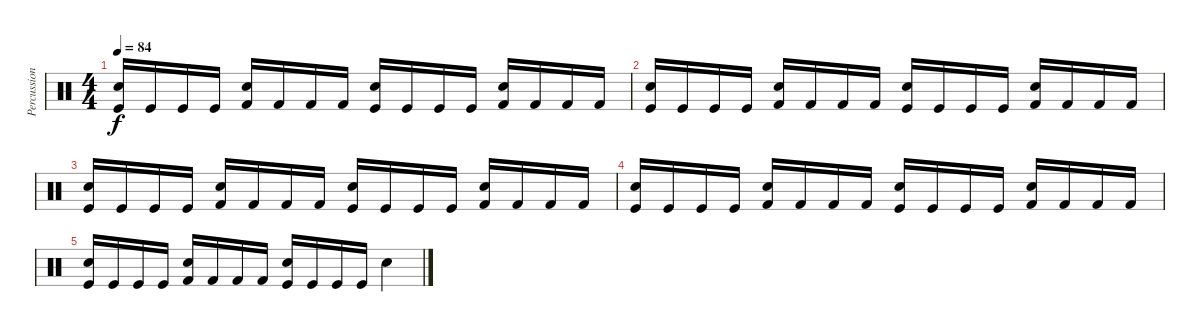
\track ("Percussion" "Percussion") {instrument percussion}
\staff {score}
\articulation defaults
\ts (4 4)
\tempo 84
\clef neutral
\ks c
("Snare (hit) 2" "Kick (hit)").16{dy f} "Kick (hit)".16 "Kick (hit)".16 "Kick (hit)".16 ("Electric Snare (hit)" "Kick (hit) 2").16 "Kick (hit) 2".16 "Kick (hit) 2".16 "Kick (hit) 2".16 ("Snare (hit) 2" "Kick (hit)").16 "Kick (hit)".16 "Kick (hit)".16 "Kick (hit)".16 ("Electric Snare (hit)" "Kick (hit) 2").16 "Kick (hit) 2".16 "Kick (hit) 2".16 "Kick (hit) 2".16 |
("Snare (hit) 2" "Kick (hit)").16 "Kick (hit)".16 "Kick (hit)".16 "Kick (hit)".16 ("Electric Snare (hit)" "Kick (hit) 2").16 "Kick (hit) 2".16 "Kick (hit) 2".16 "Kick (hit) 2".16 ("Snare (hit) 2" "Kick (hit)").16 "Kick (hit)".16 "Kick (hit)".16 "Kick (hit)".16 ("Electric Snare (hit)" "Kick (hit) 2").16 "Kick (hit) 2".16 "Kick (hit) 2".16 "Kick (hit) 2".16 |
("Snare (hit) 2" "Kick (hit)").16 "Kick (hit)".16 "Kick (hit)".16 "Kick (hit)".16 ("Electric Snare (hit)" "Kick (hit) 2").16 "Kick (hit) 2".16 "Kick (hit) 2".16 "Kick (hit) 2".16 ("Snare (hit) 2" "Kick (hit)").16 "Kick (hit)".16 "Kick (hit)".16 "Kick (hit)".16 ("Electric Snare (hit)" "Kick (hit) 2").16 "Kick (hit) 2".16 "Kick (hit) 2".16 "Kick (hit) 2".16 |
("Snare (hit) 2" "Kick (hit)").16 "Kick (hit)".16 "Kick (hit)".16 "Kick (hit)".16 ("Electric Snare (hit)" "Kick (hit) 2").16 "Kick (hit) 2".16 "Kick (hit) 2".16 "Kick (hit) 2".16 ("Snare (hit) 2" "Kick (hit)").16 "Kick (hit)".16 "Kick (hit)".16 "Kick (hit)".16 ("Electric Snare (hit)" "Kick (hit) 2").16 "Kick (hit) 2".16 "Kick (hit) 2".16 "Kick (hit) 2".16 |
("Snare (hit) 2" "Kick (hit)").16 "Kick (hit)".16 "Kick (hit)".16 "Kick (hit)".16 ("Electric Snare (hit)" "Kick (hit) 2").16 "Kick (hit) 2".16 "Kick (hit) 2".16 "Kick (hit) 2".16 ("Snare (hit) 2" "Kick (hit)").16 "Kick (hit)".16 "Kick (hit)".16 "Kick (hit)".16 "Electric Snare (hit)".4
